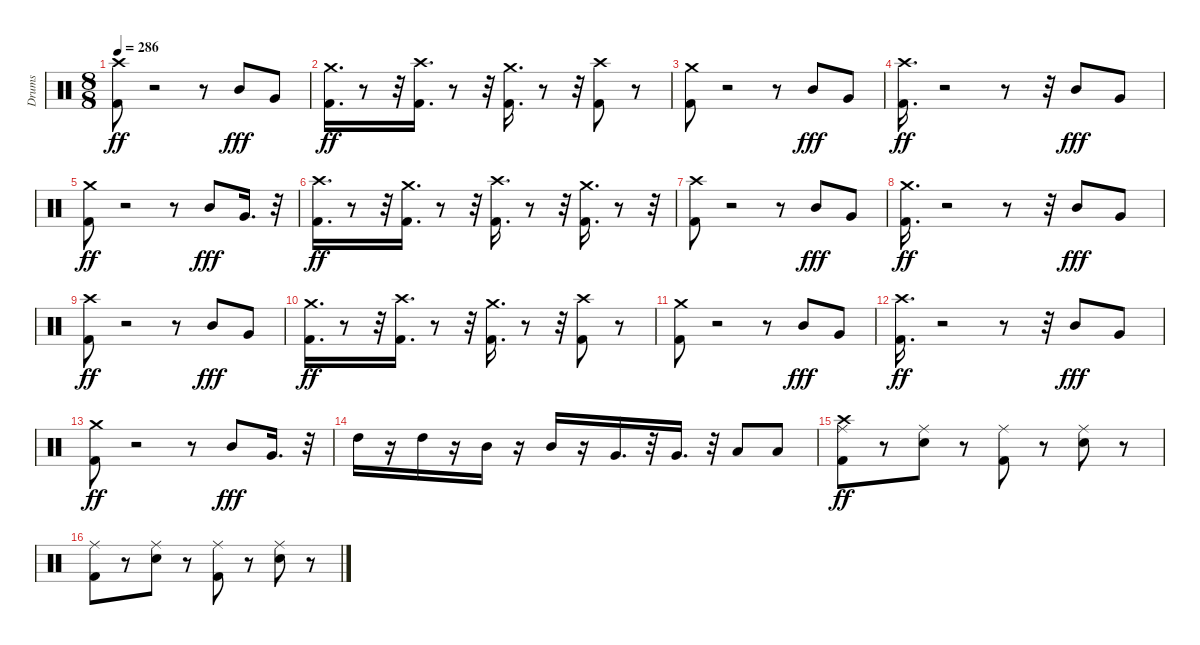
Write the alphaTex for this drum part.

\track ("Drums" "Drums") {instrument percussion}
\staff {score}
\articulation defaults
\ts (8 8)
\tempo 286
\clef neutral
\ks c
("Kick (hit) 2" "Crash high (hit)").8{dy ff} r.2 r.8 "Mid Tom (hit)".8{dy fff} "Very Low Tom (hit)".8 |
("Kick (hit) 2" "Crash medium (hit)").16{d dy ff} r.8 r.32 ("Kick (hit) 2" "Crash high (hit)").16{d} r.8 r.32 ("Kick (hit) 2" "Crash medium (hit)").16{d} r.8 r.32 ("Kick (hit) 2" "Crash high (hit)").8 r.8 |
("Kick (hit) 2" "Crash medium (hit)").8 r.2 r.8 "Mid Tom (hit)".8{dy fff} "Very Low Tom (hit)".8 |
("Kick (hit) 2" "Crash high (hit)").16{d dy ff} r.2 r.8 r.32 "Mid Tom (hit)".8{dy fff} "Very Low Tom (hit)".8 |
("Kick (hit) 2" "Crash medium (hit)").8{dy ff} r.2 r.8 "Mid Tom (hit)".8{dy fff} "Very Low Tom (hit)".16{d} r.32 |
("Kick (hit) 2" "Crash high (hit)").16{d dy ff} r.8 r.32 ("Kick (hit) 2" "Crash medium (hit)").16{d} r.8 r.32 ("Kick (hit) 2" "Crash high (hit)").16{d} r.8 r.32 ("Kick (hit) 2" "Crash medium (hit)").16{d} r.8 r.32 |
("Kick (hit) 2" "Crash high (hit)").8 r.2 r.8 "Mid Tom (hit)".8{dy fff} "Very Low Tom (hit)".8 |
("Kick (hit) 2" "Crash medium (hit)").16{d dy ff} r.2 r.8 r.32 "Mid Tom (hit)".8{dy fff} "Very Low Tom (hit)".8 |
("Kick (hit) 2" "Crash high (hit)").8{dy ff} r.2 r.8 "Mid Tom (hit)".8{dy fff} "Very Low Tom (hit)".8 |
("Kick (hit) 2" "Crash medium (hit)").16{d dy ff} r.8 r.32 ("Kick (hit) 2" "Crash high (hit)").16{d} r.8 r.32 ("Kick (hit) 2" "Crash medium (hit)").16{d} r.8 r.32 ("Kick (hit) 2" "Crash high (hit)").8 r.8 |
("Kick (hit) 2" "Crash medium (hit)").8 r.2 r.8 "Mid Tom (hit)".8{dy fff} "Very Low Tom (hit)".8 |
("Kick (hit) 2" "Crash high (hit)").16{d dy ff} r.2 r.8 r.32 "Mid Tom (hit)".8{dy fff} "Very Low Tom (hit)".8 |
("Kick (hit) 2" "Crash medium (hit)").8{dy ff} r.2 r.8 "Mid Tom (hit)".8{dy fff} "Very Low Tom (hit)".16{d} r.32 |
"High Tom (hit)".16 r.16 "High Tom (hit)".16 r.16 "Mid Tom (hit)".16 r.16 "Mid Tom (hit)".16 r.16 "Very Low Tom (hit)".16{d} r.32 "Very Low Tom (hit)".16{d} r.32 "Low Floor Tom (hit)".8 "Low Floor Tom (hit)".8 |
("Kick (hit) 2" "Ride (middle)" "Crash high (hit)").8{dy ff} r.8 ("Snare (hit) 2" "Ride (middle)").8 r.8 ("Kick (hit) 2" "Ride (middle)").8 r.8 ("Snare (hit) 2" "Ride (middle)").8 r.8 |
("Kick (hit) 2" "Ride (middle)").8 r.8 ("Snare (hit) 2" "Ride (middle)").8 r.8 ("Kick (hit) 2" "Ride (middle)").8 r.8 ("Snare (hit) 2" "Ride (middle)").8 r.8
